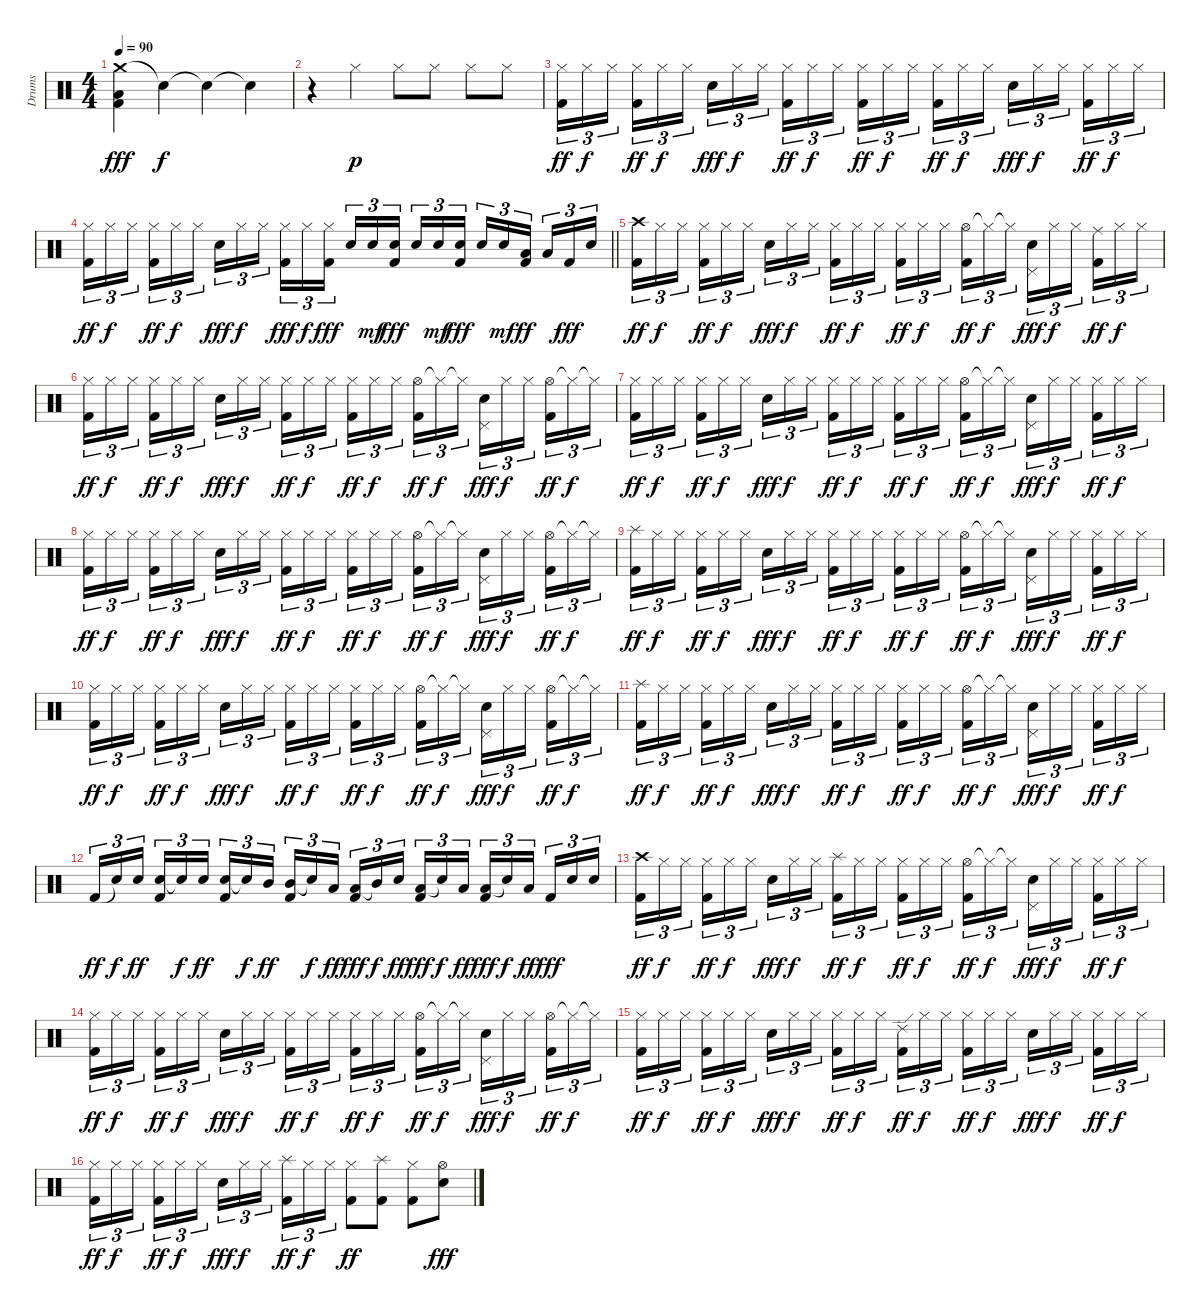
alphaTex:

\track ("Drums" "Drums") {instrument percussion}
\staff {score}
\articulation defaults
\ts (4 4)
\section ("" "")
\tempo 90
\clef neutral
\ks c
("Crash medium (hit)" "Low Tom (hit)" "Kick (hit) 2").4{dy fff} "Snare (hit)"{t}.4{dy f} "Snare (hit)"{t}.4 "Snare (hit)"{t}.4 |
r.4 "Hi-Hat (closed)".4{dy p} "Hi-Hat (closed)".8 "Hi-Hat (closed)".8 "Hi-Hat (closed)".8 "Hi-Hat (closed)".8 |
("Hi-Hat (closed)" "Kick (hit) 2").16{tu (3 2) dy ff} "Hi-Hat (closed)".16{tu (3 2) dy f} "Hi-Hat (closed)".16{tu (3 2) beam splitsecondary} ("Hi-Hat (closed)" "Kick (hit) 2").16{tu (3 2) dy ff} "Hi-Hat (closed)".16{tu (3 2) dy f} "Hi-Hat (closed)".16{tu (3 2)} "Snare (hit) 2".16{tu (3 2) dy fff} "Hi-Hat (closed)".16{tu (3 2) dy f} "Hi-Hat (closed)".16{tu (3 2) beam splitsecondary} ("Hi-Hat (closed)" "Kick (hit) 2").16{tu (3 2) dy ff} "Hi-Hat (closed)".16{tu (3 2) dy f} "Hi-Hat (closed)".16{tu (3 2)} ("Hi-Hat (closed)" "Kick (hit) 2").16{tu (3 2) dy ff} "Hi-Hat (closed)".16{tu (3 2) dy f} "Hi-Hat (closed)".16{tu (3 2) beam splitsecondary} ("Hi-Hat (closed)" "Kick (hit) 2").16{tu (3 2) dy ff} "Hi-Hat (closed)".16{tu (3 2) dy f} "Hi-Hat (closed)".16{tu (3 2)} "Snare (hit) 2".16{tu (3 2) dy fff} "Hi-Hat (closed)".16{tu (3 2) dy f} "Hi-Hat (closed)".16{tu (3 2) beam splitsecondary} ("Hi-Hat (closed)" "Kick (hit) 2").16{tu (3 2) dy ff} "Hi-Hat (closed)".16{tu (3 2) dy f} "Hi-Hat (closed)".16{tu (3 2)} |
\barLineRight lightlight
("Hi-Hat (closed)" "Kick (hit) 2").16{tu (3 2) dy ff} "Hi-Hat (closed)".16{tu (3 2) dy f} "Hi-Hat (closed)".16{tu (3 2) beam splitsecondary} ("Hi-Hat (closed)" "Kick (hit) 2").16{tu (3 2) dy ff} "Hi-Hat (closed)".16{tu (3 2) dy f} "Hi-Hat (closed)".16{tu (3 2)} "Snare (hit) 2".16{tu (3 2) dy fff} "Hi-Hat (closed)".16{tu (3 2) dy f} "Hi-Hat (closed)".16{tu (3 2) beam splitsecondary} ("Hi-Hat (closed)" "Kick (hit) 2").16{tu (3 2) dy fff} "Hi-Hat (closed)".16{tu (3 2) dy f} ("Hi-Hat (closed)" "Kick (hit) 2").16{tu (3 2) dy fff} "Snare (hit) 2".16{tu (3 2)} "Snare (hit) 2".16{tu (3 2) dy mf} ("Snare (hit) 2" "Kick (hit) 2").16{tu (3 2) dy fff beam splitsecondary} "Snare (hit) 2".16{tu (3 2)} "Snare (hit) 2".16{tu (3 2) dy mf} ("Snare (hit) 2" "Kick (hit) 2").16{tu (3 2) dy fff} "Snare (hit) 2".16{tu (3 2)} "Snare (hit) 2".16{tu (3 2) dy mf} ("Low Tom (hit)" "Kick (hit) 2").16{tu (3 2) dy ff beam splitsecondary} "Low Tom (hit)".16{tu (3 2)} "Kick (hit) 2".16{tu (3 2) dy fff} "Snare (hit) 2".16{tu (3 2)} |
\section ("" "")
("Crash high (hit)" "Kick (hit) 2").16{tu (3 2) dy ff} "Hi-Hat (closed)".16{tu (3 2) dy f} "Hi-Hat (closed)".16{tu (3 2) beam splitsecondary} ("Hi-Hat (closed)" "Kick (hit) 2").16{tu (3 2) dy ff} "Hi-Hat (closed)".16{tu (3 2) dy f} "Hi-Hat (closed)".16{tu (3 2)} "Snare (hit) 2".16{tu (3 2) dy fff} "Hi-Hat (closed)".16{tu (3 2) dy f} "Hi-Hat (closed)".16{tu (3 2) beam splitsecondary} ("Hi-Hat (closed)" "Kick (hit) 2").16{tu (3 2) dy ff} "Hi-Hat (closed)".16{tu (3 2) dy f} "Hi-Hat (closed)".16{tu (3 2)} ("Hi-Hat (closed)" "Kick (hit) 2").16{tu (3 2) dy ff} "Hi-Hat (closed)".16{tu (3 2) dy f} "Hi-Hat (closed)".16{tu (3 2) beam splitsecondary} ("Hi-Hat (open)" "Kick (hit) 2").16{tu (3 2) dy ff} "Hi-Hat (closed)"{t}.16{tu (3 2) dy f} "Hi-Hat (closed)"{t}.16{tu (3 2)} ("Pedal Hi-Hat (hit)" "Snare (hit) 2").16{tu (3 2) dy fff} "Hi-Hat (closed)".16{tu (3 2) dy f} "Hi-Hat (closed)".16{tu (3 2) beam splitsecondary} ("Ride (middle)" "Kick (hit) 2").16{tu (3 2) dy ff} "Hi-Hat (closed)".16{tu (3 2) dy f} "Hi-Hat (closed)".16{tu (3 2)} |
("Hi-Hat (closed)" "Kick (hit) 2").16{tu (3 2) dy ff} "Hi-Hat (closed)".16{tu (3 2) dy f} "Hi-Hat (closed)".16{tu (3 2) beam splitsecondary} ("Hi-Hat (closed)" "Kick (hit) 2").16{tu (3 2) dy ff} "Hi-Hat (closed)".16{tu (3 2) dy f} "Hi-Hat (closed)".16{tu (3 2)} "Snare (hit) 2".16{tu (3 2) dy fff} "Hi-Hat (closed)".16{tu (3 2) dy f} "Hi-Hat (closed)".16{tu (3 2) beam splitsecondary} ("Hi-Hat (closed)" "Kick (hit) 2").16{tu (3 2) dy ff} "Hi-Hat (closed)".16{tu (3 2) dy f} "Hi-Hat (closed)".16{tu (3 2)} ("Hi-Hat (closed)" "Kick (hit) 2").16{tu (3 2) dy ff} "Hi-Hat (closed)".16{tu (3 2) dy f} "Hi-Hat (closed)".16{tu (3 2) beam splitsecondary} ("Hi-Hat (open)" "Kick (hit) 2").16{tu (3 2) dy ff} "Hi-Hat (closed)"{t}.16{tu (3 2) dy f} "Hi-Hat (closed)"{t}.16{tu (3 2)} ("Pedal Hi-Hat (hit)" "Snare (hit) 2").16{tu (3 2) dy fff} "Hi-Hat (closed)".16{tu (3 2) dy f} "Hi-Hat (closed)".16{tu (3 2) beam splitsecondary} ("Hi-Hat (open)" "Kick (hit) 2").16{tu (3 2) dy ff} "Hi-Hat (closed)"{t}.16{tu (3 2) dy f} "Hi-Hat (closed)"{t}.16{tu (3 2)} |
("Hi-Hat (closed)" "Kick (hit) 2").16{tu (3 2) dy ff} "Hi-Hat (closed)".16{tu (3 2) dy f} "Hi-Hat (closed)".16{tu (3 2) beam splitsecondary} ("Hi-Hat (closed)" "Kick (hit) 2").16{tu (3 2) dy ff} "Hi-Hat (closed)".16{tu (3 2) dy f} "Hi-Hat (closed)".16{tu (3 2)} "Snare (hit) 2".16{tu (3 2) dy fff} "Hi-Hat (closed)".16{tu (3 2) dy f} "Hi-Hat (closed)".16{tu (3 2) beam splitsecondary} ("Hi-Hat (closed)" "Kick (hit) 2").16{tu (3 2) dy ff} "Hi-Hat (closed)".16{tu (3 2) dy f} "Hi-Hat (closed)".16{tu (3 2)} ("Hi-Hat (closed)" "Kick (hit) 2").16{tu (3 2) dy ff} "Hi-Hat (closed)".16{tu (3 2) dy f} "Hi-Hat (closed)".16{tu (3 2) beam splitsecondary} ("Hi-Hat (open)" "Kick (hit) 2").16{tu (3 2) dy ff} "Hi-Hat (closed)"{t}.16{tu (3 2) dy f} "Hi-Hat (closed)"{t}.16{tu (3 2)} ("Pedal Hi-Hat (hit)" "Snare (hit) 2").16{tu (3 2) dy fff} "Hi-Hat (closed)".16{tu (3 2) dy f} "Hi-Hat (closed)".16{tu (3 2) beam splitsecondary} ("Hi-Hat (closed)" "Kick (hit) 2").16{tu (3 2) dy ff} "Hi-Hat (closed)".16{tu (3 2) dy f} "Hi-Hat (closed)".16{tu (3 2)} |
("Hi-Hat (closed)" "Kick (hit) 2").16{tu (3 2) dy ff} "Hi-Hat (closed)".16{tu (3 2) dy f} "Hi-Hat (closed)".16{tu (3 2) beam splitsecondary} ("Hi-Hat (closed)" "Kick (hit) 2").16{tu (3 2) dy ff} "Hi-Hat (closed)".16{tu (3 2) dy f} "Hi-Hat (closed)".16{tu (3 2)} "Snare (hit) 2".16{tu (3 2) dy fff} "Hi-Hat (closed)".16{tu (3 2) dy f} "Hi-Hat (closed)".16{tu (3 2) beam splitsecondary} ("Hi-Hat (closed)" "Kick (hit) 2").16{tu (3 2) dy ff} "Hi-Hat (closed)".16{tu (3 2) dy f} "Hi-Hat (closed)".16{tu (3 2)} ("Hi-Hat (closed)" "Kick (hit) 2").16{tu (3 2) dy ff} "Hi-Hat (closed)".16{tu (3 2) dy f} "Hi-Hat (closed)".16{tu (3 2) beam splitsecondary} ("Hi-Hat (open)" "Kick (hit) 2").16{tu (3 2) dy ff} "Hi-Hat (closed)"{t}.16{tu (3 2) dy f} "Hi-Hat (closed)"{t}.16{tu (3 2)} ("Pedal Hi-Hat (hit)" "Snare (hit) 2").16{tu (3 2) dy fff} "Hi-Hat (closed)".16{tu (3 2) dy f} "Hi-Hat (closed)".16{tu (3 2) beam splitsecondary} ("Hi-Hat (open)" "Kick (hit) 2").16{tu (3 2) dy ff} "Hi-Hat (closed)"{t}.16{tu (3 2) dy f} "Hi-Hat (closed)"{t}.16{tu (3 2)} |
("Splash (hit)" "Kick (hit) 2").16{tu (3 2) dy ff} "Hi-Hat (closed)".16{tu (3 2) dy f} "Hi-Hat (closed)".16{tu (3 2) beam splitsecondary} ("Hi-Hat (closed)" "Kick (hit) 2").16{tu (3 2) dy ff} "Hi-Hat (closed)".16{tu (3 2) dy f} "Hi-Hat (closed)".16{tu (3 2)} "Snare (hit) 2".16{tu (3 2) dy fff} "Hi-Hat (closed)".16{tu (3 2) dy f} "Hi-Hat (closed)".16{tu (3 2) beam splitsecondary} ("Hi-Hat (closed)" "Kick (hit) 2").16{tu (3 2) dy ff} "Hi-Hat (closed)".16{tu (3 2) dy f} "Hi-Hat (closed)".16{tu (3 2)} ("Hi-Hat (closed)" "Kick (hit) 2").16{tu (3 2) dy ff} "Hi-Hat (closed)".16{tu (3 2) dy f} "Hi-Hat (closed)".16{tu (3 2) beam splitsecondary} ("Hi-Hat (open)" "Kick (hit) 2").16{tu (3 2) dy ff} "Hi-Hat (closed)"{t}.16{tu (3 2) dy f} "Hi-Hat (closed)"{t}.16{tu (3 2)} ("Pedal Hi-Hat (hit)" "Snare (hit) 2").16{tu (3 2) dy fff} "Hi-Hat (closed)".16{tu (3 2) dy f} "Hi-Hat (closed)".16{tu (3 2) beam splitsecondary} ("Hi-Hat (closed)" "Kick (hit) 2").16{tu (3 2) dy ff} "Hi-Hat (closed)".16{tu (3 2) dy f} "Hi-Hat (closed)".16{tu (3 2)} |
("Hi-Hat (closed)" "Kick (hit) 2").16{tu (3 2) dy ff} "Hi-Hat (closed)".16{tu (3 2) dy f} "Hi-Hat (closed)".16{tu (3 2) beam splitsecondary} ("Hi-Hat (closed)" "Kick (hit) 2").16{tu (3 2) dy ff} "Hi-Hat (closed)".16{tu (3 2) dy f} "Hi-Hat (closed)".16{tu (3 2)} "Snare (hit) 2".16{tu (3 2) dy fff} "Hi-Hat (closed)".16{tu (3 2) dy f} "Hi-Hat (closed)".16{tu (3 2) beam splitsecondary} ("Hi-Hat (closed)" "Kick (hit) 2").16{tu (3 2) dy ff} "Hi-Hat (closed)".16{tu (3 2) dy f} "Hi-Hat (closed)".16{tu (3 2)} ("Hi-Hat (closed)" "Kick (hit) 2").16{tu (3 2) dy ff} "Hi-Hat (closed)".16{tu (3 2) dy f} "Hi-Hat (closed)".16{tu (3 2) beam splitsecondary} ("Hi-Hat (open)" "Kick (hit) 2").16{tu (3 2) dy ff} "Hi-Hat (closed)"{t}.16{tu (3 2) dy f} "Hi-Hat (closed)"{t}.16{tu (3 2)} ("Pedal Hi-Hat (hit)" "Snare (hit) 2").16{tu (3 2) dy fff} "Hi-Hat (closed)".16{tu (3 2) dy f} "Hi-Hat (closed)".16{tu (3 2) beam splitsecondary} ("Hi-Hat (open)" "Kick (hit) 2").16{tu (3 2) dy ff} "Hi-Hat (closed)"{t}.16{tu (3 2) dy f} "Hi-Hat (closed)"{t}.16{tu (3 2)} |
("Splash (hit)" "Kick (hit) 2").16{tu (3 2) dy ff} "Hi-Hat (closed)".16{tu (3 2) dy f} "Hi-Hat (closed)".16{tu (3 2) beam splitsecondary} ("Hi-Hat (closed)" "Kick (hit) 2").16{tu (3 2) dy ff} "Hi-Hat (closed)".16{tu (3 2) dy f} "Hi-Hat (closed)".16{tu (3 2)} "Snare (hit) 2".16{tu (3 2) dy fff} "Hi-Hat (closed)".16{tu (3 2) dy f} "Hi-Hat (closed)".16{tu (3 2) beam splitsecondary} ("Hi-Hat (closed)" "Kick (hit) 2").16{tu (3 2) dy ff} "Hi-Hat (closed)".16{tu (3 2) dy f} "Hi-Hat (closed)".16{tu (3 2)} ("Hi-Hat (closed)" "Kick (hit) 2").16{tu (3 2) dy ff} "Hi-Hat (closed)".16{tu (3 2) dy f} "Hi-Hat (closed)".16{tu (3 2) beam splitsecondary} ("Hi-Hat (open)" "Kick (hit) 2").16{tu (3 2) dy ff} "Hi-Hat (closed)"{t}.16{tu (3 2) dy f} "Hi-Hat (closed)"{t}.16{tu (3 2)} ("Pedal Hi-Hat (hit)" "Snare (hit) 2").16{tu (3 2) dy fff} "Hi-Hat (closed)".16{tu (3 2) dy f} "Hi-Hat (closed)".16{tu (3 2) beam splitsecondary} ("Hi-Hat (closed)" "Kick (hit) 2").16{tu (3 2) dy ff} "Hi-Hat (closed)".16{tu (3 2) dy f} "Hi-Hat (closed)".16{tu (3 2)} |
"Kick (hit) 2".16{tu (3 2) dy ff} "Snare (hit)"{t}.16{tu (3 2) dy f} "Snare (hit) 2".16{tu (3 2) dy ff beam splitsecondary} ("Snare (hit) 2" "Kick (hit) 2").16{tu (3 2)} "Snare (hit) 2"{t}.16{tu (3 2) dy f} "Snare (hit) 2".16{tu (3 2) dy ff} ("Snare (hit) 2" "Kick (hit) 2").16{tu (3 2)} "Snare (hit)"{t}.16{tu (3 2) dy f} "Mid Tom (hit)".16{tu (3 2) dy ff beam splitsecondary} ("Mid Tom (hit)" "Kick (hit) 2").16{tu (3 2)} "Snare (hit)"{t}.16{tu (3 2) dy f} "Low Tom (hit)".16{tu (3 2) dy ff} ("Low Tom (hit)" "Kick (hit) 2").16{tu (3 2) dy fff} "Mid Tom (hit)"{t}.16{tu (3 2) dy f} "Snare (hit) 2".16{tu (3 2) dy ff beam splitsecondary} ("Low Tom (hit)" "Kick (hit) 2").16{tu (3 2) dy fff} "Snare (hit)"{t}.16{tu (3 2) dy f} "Low Tom (hit)".16{tu (3 2) dy ff} ("Low Tom (hit)" "Kick (hit) 2").16{tu (3 2) dy fff} "Snare (hit)"{t}.16{tu (3 2) dy f} "Low Tom (hit)".16{tu (3 2) dy ff beam splitsecondary} "Kick (hit) 2".16{tu (3 2) dy fff} "Snare (hit) 2".16{tu (3 2)} "Snare (hit) 2".16{tu (3 2)} |
("Crash high (hit)" "Kick (hit) 2").16{tu (3 2) dy ff} "Hi-Hat (closed)".16{tu (3 2) dy f} "Hi-Hat (closed)".16{tu (3 2) beam splitsecondary} ("Hi-Hat (closed)" "Kick (hit) 2").16{tu (3 2) dy ff} "Hi-Hat (closed)".16{tu (3 2) dy f} "Hi-Hat (closed)".16{tu (3 2)} "Snare (hit) 2".16{tu (3 2) dy fff} "Hi-Hat (closed)".16{tu (3 2) dy f} "Hi-Hat (closed)".16{tu (3 2) beam splitsecondary} ("Splash (hit)" "Kick (hit) 2").16{tu (3 2) dy ff} "Hi-Hat (closed)".16{tu (3 2) dy f} "Hi-Hat (closed)".16{tu (3 2)} ("Hi-Hat (closed)" "Kick (hit) 2").16{tu (3 2) dy ff} "Hi-Hat (closed)".16{tu (3 2) dy f} "Hi-Hat (closed)".16{tu (3 2) beam splitsecondary} ("Hi-Hat (open)" "Kick (hit) 2").16{tu (3 2) dy ff} "Hi-Hat (closed)"{t}.16{tu (3 2) dy f} "Hi-Hat (closed)"{t}.16{tu (3 2)} ("Pedal Hi-Hat (hit)" "Snare (hit) 2").16{tu (3 2) dy fff} "Hi-Hat (closed)".16{tu (3 2) dy f} "Hi-Hat (closed)".16{tu (3 2) beam splitsecondary} ("Hi-Hat (closed)" "Kick (hit) 2").16{tu (3 2) dy ff} "Hi-Hat (closed)".16{tu (3 2) dy f} "Hi-Hat (closed)".16{tu (3 2)} |
("Hi-Hat (closed)" "Kick (hit) 2").16{tu (3 2) dy ff} "Hi-Hat (closed)".16{tu (3 2) dy f} "Hi-Hat (closed)".16{tu (3 2) beam splitsecondary} ("Hi-Hat (closed)" "Kick (hit) 2").16{tu (3 2) dy ff} "Hi-Hat (closed)".16{tu (3 2) dy f} "Hi-Hat (closed)".16{tu (3 2)} "Snare (hit) 2".16{tu (3 2) dy fff} "Hi-Hat (closed)".16{tu (3 2) dy f} "Hi-Hat (closed)".16{tu (3 2) beam splitsecondary} ("Hi-Hat (closed)" "Kick (hit) 2").16{tu (3 2) dy ff} "Hi-Hat (closed)".16{tu (3 2) dy f} "Hi-Hat (closed)".16{tu (3 2)} ("Hi-Hat (closed)" "Kick (hit) 2").16{tu (3 2) dy ff} "Hi-Hat (closed)".16{tu (3 2) dy f} "Hi-Hat (closed)".16{tu (3 2) beam splitsecondary} ("Hi-Hat (open)" "Kick (hit) 2").16{tu (3 2) dy ff} "Hi-Hat (closed)"{t}.16{tu (3 2) dy f} "Hi-Hat (closed)"{t}.16{tu (3 2)} ("Pedal Hi-Hat (hit)" "Snare (hit) 2").16{tu (3 2) dy fff} "Hi-Hat (closed)".16{tu (3 2) dy f} "Hi-Hat (closed)".16{tu (3 2) beam splitsecondary} ("Hi-Hat (open)" "Kick (hit) 2").16{tu (3 2) dy ff} "Hi-Hat (closed)"{t}.16{tu (3 2) dy f} "Hi-Hat (closed)"{t}.16{tu (3 2)} |
("Hi-Hat (closed)" "Kick (hit) 2").16{tu (3 2) dy ff} "Hi-Hat (closed)".16{tu (3 2) dy f} "Hi-Hat (closed)".16{tu (3 2) beam splitsecondary} ("Hi-Hat (closed)" "Kick (hit) 2").16{tu (3 2) dy ff} "Hi-Hat (closed)".16{tu (3 2) dy f} "Hi-Hat (closed)".16{tu (3 2)} "Snare (hit) 2".16{tu (3 2) dy fff} "Hi-Hat (closed)".16{tu (3 2) dy f} "Hi-Hat (closed)".16{tu (3 2) beam splitsecondary} ("Hi-Hat (closed)" "Kick (hit) 2").16{tu (3 2) dy ff} "Hi-Hat (closed)".16{tu (3 2) dy f} "Hi-Hat (closed)".16{tu (3 2)} ("Ride (edge) 2" "Kick (hit) 2").16{tu (3 2) dy ff} "Hi-Hat (closed)".16{tu (3 2) dy f} "Hi-Hat (closed)".16{tu (3 2) beam splitsecondary} ("Hi-Hat (closed)" "Kick (hit) 2").16{tu (3 2) dy ff} "Hi-Hat (closed)".16{tu (3 2) dy f} "Hi-Hat (closed)".16{tu (3 2)} "Snare (hit) 2".16{tu (3 2) dy fff} "Hi-Hat (closed)".16{tu (3 2) dy f} "Hi-Hat (closed)".16{tu (3 2) beam splitsecondary} ("Hi-Hat (closed)" "Kick (hit) 2").16{tu (3 2) dy ff} "Hi-Hat (closed)".16{tu (3 2) dy f} "Hi-Hat (closed)".16{tu (3 2)} |
("Hi-Hat (closed)" "Kick (hit) 2").16{tu (3 2) dy ff} "Hi-Hat (closed)".16{tu (3 2) dy f} "Hi-Hat (closed)".16{tu (3 2) beam splitsecondary} ("Hi-Hat (closed)" "Kick (hit) 2").16{tu (3 2) dy ff} "Hi-Hat (closed)".16{tu (3 2) dy f} "Hi-Hat (closed)".16{tu (3 2)} "Snare (hit) 2".16{tu (3 2) dy fff} "Hi-Hat (closed)".16{tu (3 2) dy f} "Hi-Hat (closed)".16{tu (3 2) beam splitsecondary} ("Splash (hit)" "Kick (hit) 2").16{tu (3 2) dy ff} "Hi-Hat (closed)".16{tu (3 2) dy f} "Hi-Hat (closed)".16{tu (3 2)} ("Hi-Hat (closed)" "Kick (hit) 2").8{dy ff} ("Splash (hit)" "Kick (hit) 2").8 ("Hi-Hat (closed)" "Kick (hit) 2").8 ("Hi-Hat (open)" "Snare (hit) 2").8{dy fff}
